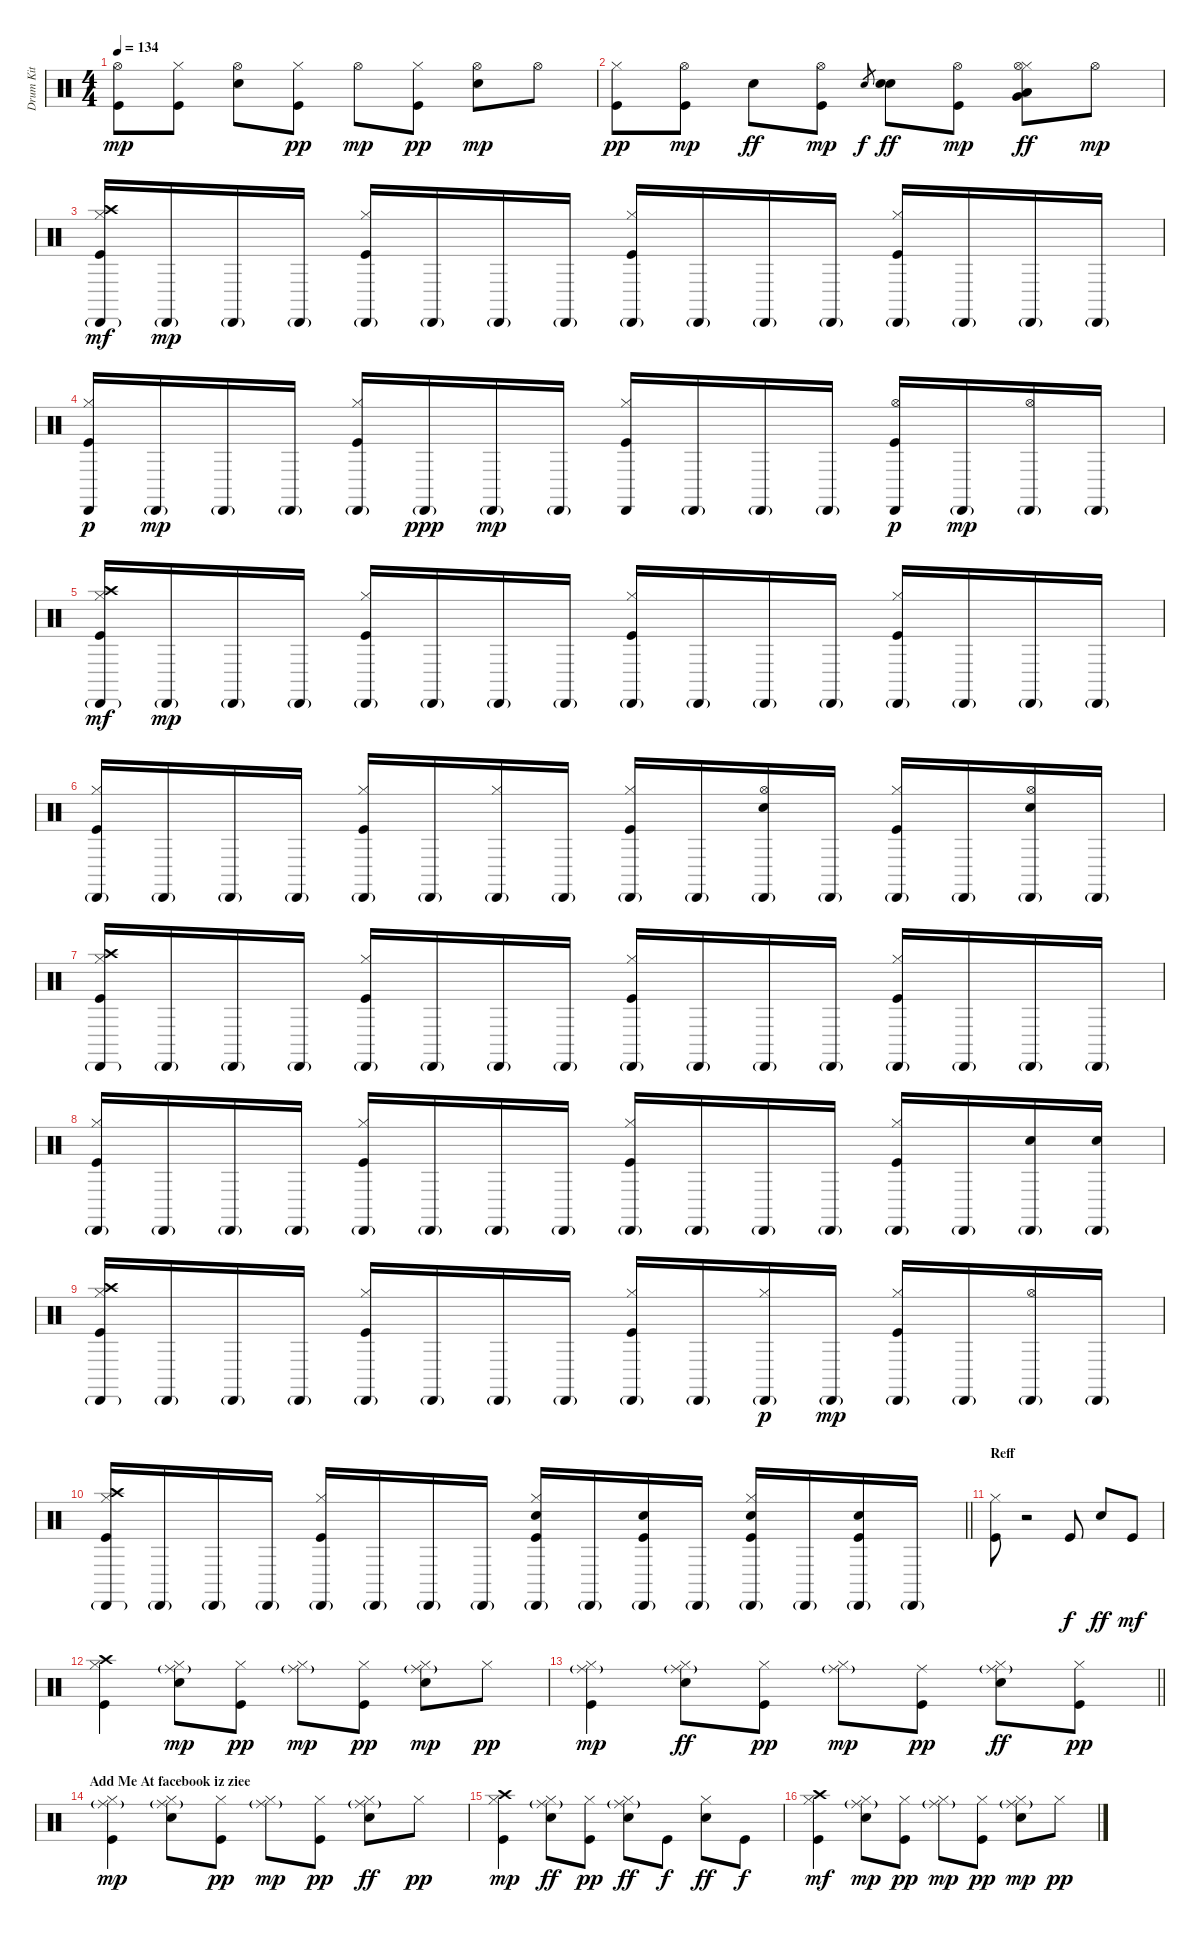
\track ("Drum Kit" "Drum Kit") {instrument percussion}
\staff {score}
\articulation defaults
\ts (4 4)
\tempo 134
\clef neutral
\ks c
("Hi-Hat (open)" "Kick (hit)").8{dy mp} ("Kick (hit)" "Hi-Hat (closed)").8 ("Electric Snare (hit)" "Hi-Hat (open)").8 ("Hi-Hat (closed)" "Kick (hit)").8{dy pp} "Hi-Hat (open)".8{dy mp} ("Kick (hit)" "Hi-Hat (closed)").8{dy pp} ("Electric Snare (hit)" "Hi-Hat (open)").8{dy mp} "Hi-Hat (open)".8 |
("Hi-Hat (closed)" "Kick (hit)").8{dy pp} ("Kick (hit)" "Hi-Hat (open)").8{dy mp} "Electric Snare (hit)".8{dy ff} ("Hi-Hat (open)" "Kick (hit)").8{dy mp} "Electric Snare (hit)".8{gr dy f} ("Electric Snare (hit)" "Electric Snare (hit)").8{dy ff} ("Hi-Hat (open)" "Kick (hit)").8{dy mp} ("Low Tom (hit)" "Hi-Hat (closed)" "Hi-Hat (open)" "Very Low Tom (hit)").8{dy ff} "Hi-Hat (open)".8{dy mp} |
("Kick (hit)" "Hi-Hat (closed)" "Cabasa (hit)"{g} "Crash high (hit)").16{dy mf} "Cabasa (hit)"{g}.16{dy mp} "Cabasa (hit)"{g}.16 "Cabasa (hit)"{g}.16 ("Cabasa (hit)"{g} "Hi-Hat (closed)" "Kick (hit)").16 "Cabasa (hit)"{g}.16 "Cabasa (hit)"{g}.16 "Cabasa (hit)"{g}.16 ("Cabasa (hit)"{g} "Hi-Hat (closed)" "Kick (hit)").16 "Cabasa (hit)"{g}.16 "Cabasa (hit)"{g}.16 "Cabasa (hit)"{g}.16 ("Cabasa (hit)"{g} "Hi-Hat (closed)" "Kick (hit)").16 "Cabasa (hit)"{g}.16 "Cabasa (hit)"{g}.16 "Cabasa (hit)"{g}.16 |
("Kick (hit)" "Hi-Hat (closed)" "Cabasa (hit)").16{dy p} "Cabasa (hit)"{g}.16{dy mp} "Cabasa (hit)"{g}.16 "Cabasa (hit)"{g}.16 ("Cabasa (hit)"{g} "Hi-Hat (closed)" "Kick (hit)").16 "Cabasa (hit)"{g}.16{dy ppp} "Cabasa (hit)"{g}.16{dy mp} "Cabasa (hit)"{g}.16 ("Cabasa (hit)" "Hi-Hat (closed)" "Kick (hit)").16 "Cabasa (hit)"{g}.16 "Cabasa (hit)"{g}.16 "Cabasa (hit)"{g}.16 ("Cabasa (hit)" "Kick (hit)" "Hi-Hat (open)").16{dy p} "Cabasa (hit)"{g}.16{dy mp} ("Hi-Hat (open)" "Cabasa (hit)"{g}).16 "Cabasa (hit)"{g}.16 |
("Kick (hit)" "Hi-Hat (closed)" "Cabasa (hit)"{g} "Crash high (hit)").16{dy mf} "Cabasa (hit)"{g}.16{dy mp} "Cabasa (hit)"{g}.16 "Cabasa (hit)"{g}.16 ("Cabasa (hit)"{g} "Hi-Hat (closed)" "Kick (hit)").16 "Cabasa (hit)"{g}.16 "Cabasa (hit)"{g}.16 "Cabasa (hit)"{g}.16 ("Cabasa (hit)"{g} "Hi-Hat (closed)" "Kick (hit)").16 "Cabasa (hit)"{g}.16 "Cabasa (hit)"{g}.16 "Cabasa (hit)"{g}.16 ("Cabasa (hit)"{g} "Hi-Hat (closed)" "Kick (hit)").16 "Cabasa (hit)"{g}.16 "Cabasa (hit)"{g}.16 "Cabasa (hit)"{g}.16 |
("Kick (hit)" "Hi-Hat (closed)" "Cabasa (hit)"{g}).16 "Cabasa (hit)"{g}.16 "Cabasa (hit)"{g}.16 "Cabasa (hit)"{g}.16 ("Cabasa (hit)"{g} "Hi-Hat (closed)" "Kick (hit)").16 "Cabasa (hit)"{g}.16 ("Hi-Hat (closed)" "Cabasa (hit)"{g}).16 "Cabasa (hit)"{g}.16 ("Cabasa (hit)"{g} "Hi-Hat (closed)" "Kick (hit)").16 "Cabasa (hit)"{g}.16 ("Electric Snare (hit)" "Hi-Hat (open)" "Cabasa (hit)"{g}).16 "Cabasa (hit)"{g}.16 ("Cabasa (hit)"{g} "Hi-Hat (closed)" "Kick (hit)").16 "Cabasa (hit)"{g}.16 ("Electric Snare (hit)" "Hi-Hat (open)" "Cabasa (hit)"{g}).16 "Cabasa (hit)"{g}.16 |
("Crash high (hit)" "Kick (hit)" "Hi-Hat (closed)" "Cabasa (hit)"{g}).16 "Cabasa (hit)"{g}.16 "Cabasa (hit)"{g}.16 "Cabasa (hit)"{g}.16 ("Cabasa (hit)"{g} "Hi-Hat (closed)" "Kick (hit)").16 "Cabasa (hit)"{g}.16 "Cabasa (hit)"{g}.16 "Cabasa (hit)"{g}.16 ("Cabasa (hit)"{g} "Hi-Hat (closed)" "Kick (hit)").16 "Cabasa (hit)"{g}.16 "Cabasa (hit)"{g}.16 "Cabasa (hit)"{g}.16 ("Cabasa (hit)"{g} "Hi-Hat (closed)" "Kick (hit)").16 "Cabasa (hit)"{g}.16 "Cabasa (hit)"{g}.16 "Cabasa (hit)"{g}.16 |
("Kick (hit)" "Hi-Hat (closed)" "Cabasa (hit)"{g}).16 "Cabasa (hit)"{g}.16 "Cabasa (hit)"{g}.16 "Cabasa (hit)"{g}.16 ("Cabasa (hit)"{g} "Hi-Hat (closed)" "Kick (hit)").16 "Cabasa (hit)"{g}.16 "Cabasa (hit)"{g}.16 "Cabasa (hit)"{g}.16 ("Cabasa (hit)"{g} "Hi-Hat (closed)" "Kick (hit)").16 "Cabasa (hit)"{g}.16 "Cabasa (hit)"{g}.16 "Cabasa (hit)"{g}.16 ("Cabasa (hit)"{g} "Hi-Hat (closed)" "Kick (hit)").16 "Cabasa (hit)"{g}.16 ("Cabasa (hit)"{g} "Electric Snare (hit)").16 ("Cabasa (hit)"{g} "Electric Snare (hit)").16 |
("Crash high (hit)" "Kick (hit)" "Hi-Hat (closed)" "Cabasa (hit)"{g}).16 "Cabasa (hit)"{g}.16 "Cabasa (hit)"{g}.16 "Cabasa (hit)"{g}.16 ("Cabasa (hit)"{g} "Hi-Hat (closed)" "Kick (hit)").16 "Cabasa (hit)"{g}.16 "Cabasa (hit)"{g}.16 "Cabasa (hit)"{g}.16 ("Cabasa (hit)"{g} "Hi-Hat (closed)" "Kick (hit)").16 "Cabasa (hit)"{g}.16 ("Cabasa (hit)"{g} "Hi-Hat (closed)").16{dy p} "Cabasa (hit)"{g}.16{dy mp} ("Cabasa (hit)"{g} "Hi-Hat (closed)" "Kick (hit)").16 "Cabasa (hit)"{g}.16 ("Hi-Hat (open)" "Cabasa (hit)"{g}).16 "Cabasa (hit)"{g}.16 |
\barLineRight lightlight
("Crash high (hit)" "Kick (hit)" "Hi-Hat (closed)" "Cabasa (hit)"{g}).16 "Cabasa (hit)"{g}.16 "Cabasa (hit)"{g}.16 "Cabasa (hit)"{g}.16 ("Cabasa (hit)"{g} "Hi-Hat (closed)" "Kick (hit)").16 "Cabasa (hit)"{g}.16 "Cabasa (hit)"{g}.16 "Cabasa (hit)"{g}.16 ("Electric Snare (hit)" "Cabasa (hit)"{g} "Hi-Hat (closed)" "Kick (hit)").16 "Cabasa (hit)"{g}.16 ("Kick (hit)" "Cabasa (hit)"{g} "Electric Snare (hit)").16 "Cabasa (hit)"{g}.16 ("Electric Snare (hit)" "Cabasa (hit)"{g} "Hi-Hat (closed)" "Kick (hit)").16 "Cabasa (hit)"{g}.16 ("Kick (hit)" "Cabasa (hit)"{g} "Electric Snare (hit)").16 "Cabasa (hit)"{g}.16 |
\section ("" "Reff")
("Kick (hit)" "Hi-Hat (closed)").8 r.2 "Kick (hit)".8{dy f} "Electric Snare (hit)".8{dy ff} "Kick (hit)".8{dy mf} |
("Kick (hit)" "Hi-Hat (closed)" "Crash high (hit)").4 ("Hi-Hat (closed)" "Electric Snare (hit)" "Ride (middle)"{g}).8{dy mp} ("Kick (hit)" "Hi-Hat (closed)").8{dy pp} ("Hi-Hat (closed)" "Ride (middle)"{g}).8{dy mp} ("Hi-Hat (closed)" "Kick (hit)").8{dy pp} ("Hi-Hat (closed)" "Electric Snare (hit)" "Ride (middle)"{g}).8{dy mp} "Hi-Hat (closed)".8{dy pp} |
\barLineRight lightlight
("Ride (middle)"{g} "Hi-Hat (closed)" "Kick (hit)").4{dy mp} ("Ride (middle)"{g} "Hi-Hat (closed)" "Electric Snare (hit)").8{dy ff} ("Hi-Hat (closed)" "Kick (hit)").8{dy pp} ("Ride (middle)"{g} "Hi-Hat (closed)").8{dy mp} ("Kick (hit)" "Ride (middle)").8{dy pp} ("Ride (middle)"{g} "Hi-Hat (closed)" "Electric Snare (hit)").8{dy ff} ("Hi-Hat (closed)" "Kick (hit)").8{dy pp} |
\section ("" "Add Me At facebook iz ziee")
("Ride (middle)"{g} "Kick (hit)" "Hi-Hat (closed)").4{dy mp} ("Hi-Hat (closed)" "Electric Snare (hit)" "Ride (middle)"{g}).8 ("Kick (hit)" "Hi-Hat (closed)").8{dy pp} ("Hi-Hat (closed)" "Ride (middle)"{g}).8{dy mp} ("Hi-Hat (closed)" "Kick (hit)").8{dy pp} ("Ride (middle)"{g} "Hi-Hat (closed)" "Electric Snare (hit)").8{dy ff} "Hi-Hat (closed)".8{dy pp} |
("Crash high (hit)" "Hi-Hat (closed)" "Kick (hit)").4{dy mp} ("Ride (middle)"{g} "Hi-Hat (closed)" "Electric Snare (hit)").8{dy ff} ("Hi-Hat (closed)" "Kick (hit)").8{dy pp} ("Ride (middle)"{g} "Hi-Hat (closed)" "Electric Snare (hit)").8{dy ff} "Kick (hit)".8{dy f} ("Hi-Hat (closed)" "Electric Snare (hit)").8{dy ff} "Kick (hit)".8{dy f} |
("Kick (hit)" "Hi-Hat (closed)" "Crash high (hit)").4{dy mf} ("Hi-Hat (closed)" "Electric Snare (hit)" "Ride (middle)"{g}).8{dy mp} ("Kick (hit)" "Hi-Hat (closed)").8{dy pp} ("Hi-Hat (closed)" "Ride (middle)"{g}).8{dy mp} ("Hi-Hat (closed)" "Kick (hit)").8{dy pp} ("Hi-Hat (closed)" "Electric Snare (hit)" "Ride (middle)"{g}).8{dy mp} "Hi-Hat (closed)".8{dy pp}
